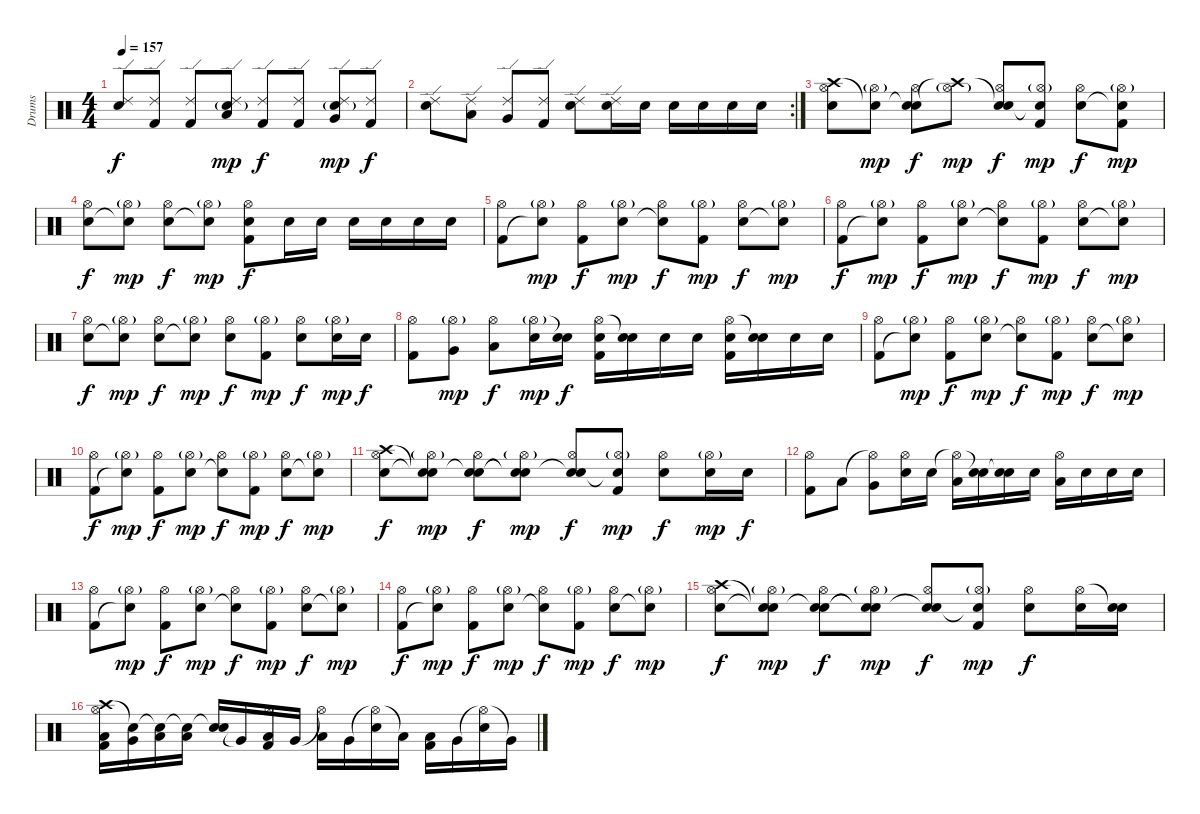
\track ("Drums" "Drums") {instrument percussion}
\staff {score}
\articulation defaults
\ts (4 4)
\tempo 157
\clef neutral
\ks c
("Ride (edge) 2" "Electric Snare (hit)").8{dy f} ("Ride (edge) 2" "Kick (hit) 2").8 ("Ride (edge) 2" "Kick (hit) 2").8 ("Ride (edge) 2" "Electric Snare (hit)"{g} "Low Tom (hit)").8{dy mp} ("Ride (edge) 2" "Kick (hit) 2").8{dy f} ("Ride (edge) 2" "Kick (hit) 2").8 ("Ride (edge) 2" "Electric Snare (hit)"{g} "Very Low Tom (hit)").8{dy mp} ("Ride (edge) 2" "Kick (hit) 2").8{dy f} |
\rc 2
("Ride (edge) 2" "Electric Snare (hit)").8 ("Ride (edge) 2" "Low Tom (hit)").8 ("Ride (edge) 2" "Very Low Tom (hit)").8 ("Ride (edge) 2" "Kick (hit) 2").8 ("Ride (edge) 2" "Electric Snare (hit)").8 ("Ride (edge) 2" "Electric Snare (hit)").16 "Electric Snare (hit)".16 "Electric Snare (hit)".16 "Electric Snare (hit)".16 "Electric Snare (hit)".16 "Electric Snare (hit)".16 |
("Crash high (hit)" "Hi-Hat (open)" "Electric Snare (hit)").8 ("Snare (hit)"{t} "Hi-Hat (open)"{g}).8{dy mp} ("Snare (hit)"{t} "Hi-Hat (open)" "Electric Snare (hit)").8{dy f} ("Crash high (hit)"{t} "Hi-Hat (open)"{g}).8{dy mp} ("Snare (hit)"{t} "Hi-Hat (open)" "Electric Snare (hit)").8{dy f} ("Snare (hit)"{t} "Hi-Hat (open)"{g} "Kick (hit) 2").8{dy mp} ("Hi-Hat (open)" "Electric Snare (hit)").8{dy f} ("Hi-Hat (open)"{g} "Snare (hit)"{t} "Kick (hit) 2").8{dy mp} |
("Hi-Hat (open)" "Electric Snare (hit)").8{dy f} ("Hi-Hat (open)"{g} "Snare (hit)"{t}).8{dy mp} ("Hi-Hat (open)" "Electric Snare (hit)").8{dy f} ("Hi-Hat (open)"{g} "Snare (hit)"{t}).8{dy mp} ("Hi-Hat (open)" "Electric Snare (hit)" "Kick (hit) 2").8{dy f} "Electric Snare (hit)".16 "Electric Snare (hit)".16 "Electric Snare (hit)".16 "Electric Snare (hit)".16 "Electric Snare (hit)".16 "Electric Snare (hit)".16 |
("Hi-Hat (open)" "Kick (hit) 2").8 ("Hi-Hat (open)"{g} "Snare (hit)"{t}).8{dy mp} ("Hi-Hat (open)" "Kick (hit) 2").8{dy f} ("Hi-Hat (open)"{g} "Electric Snare (hit)").8{dy mp} ("Hi-Hat (open)" "Snare (hit)"{t}).8{dy f} ("Hi-Hat (open)"{g} "Kick (hit) 2").8{dy mp} ("Hi-Hat (open)" "Electric Snare (hit)").8{dy f} ("Hi-Hat (open)"{g} "Snare (hit)"{t}).8{dy mp} |
("Hi-Hat (open)" "Kick (hit) 2").8{dy f} ("Hi-Hat (open)"{g} "Snare (hit)"{t}).8{dy mp} ("Hi-Hat (open)" "Kick (hit) 2").8{dy f} ("Hi-Hat (open)"{g} "Electric Snare (hit)").8{dy mp} ("Hi-Hat (open)" "Snare (hit)"{t}).8{dy f} ("Hi-Hat (open)"{g} "Kick (hit) 2").8{dy mp} ("Hi-Hat (open)" "Electric Snare (hit)").8{dy f} ("Hi-Hat (open)"{g} "Snare (hit)"{t}).8{dy mp} |
("Hi-Hat (open)" "Electric Snare (hit)").8{dy f} ("Hi-Hat (open)"{g} "Snare (hit)"{t}).8{dy mp} ("Hi-Hat (open)" "Electric Snare (hit)").8{dy f} ("Hi-Hat (open)"{g} "Snare (hit)"{t}).8{dy mp} ("Hi-Hat (open)" "Electric Snare (hit)").8{dy f} ("Hi-Hat (open)"{g} "Kick (hit) 2").8{dy mp} ("Hi-Hat (open)" "Electric Snare (hit)").8{dy f} ("Hi-Hat (open)"{g} "Electric Snare (hit)").16{dy mp} "Electric Snare (hit)".16{dy f} |
("Hi-Hat (open)" "Kick (hit) 2").8 ("Hi-Hat (open)"{g} "Very Low Tom (hit)").8{dy mp} ("Hi-Hat (open)" "Low Tom (hit)").8{dy f} ("Hi-Hat (open)"{g} "Electric Snare (hit)").16{dy mp} ("Snare (hit)"{t} "Electric Snare (hit)").16{dy f} ("Hi-Hat (open)" "Electric Snare (hit)" "Kick (hit) 2").16 ("Snare (hit)"{t} "Electric Snare (hit)").16 "Electric Snare (hit)".16 "Electric Snare (hit)".16 ("Hi-Hat (open)" "Electric Snare (hit)" "Kick (hit) 2").16 ("Snare (hit)"{t} "Electric Snare (hit)").16 "Electric Snare (hit)".16 "Electric Snare (hit)".16 |
("Hi-Hat (open)" "Kick (hit) 2").8 ("Hi-Hat (open)"{g} "Snare (hit)"{t}).8{dy mp} ("Hi-Hat (open)" "Kick (hit) 2").8{dy f} ("Hi-Hat (open)"{g} "Electric Snare (hit)").8{dy mp} ("Hi-Hat (open)" "Snare (hit)"{t}).8{dy f} ("Hi-Hat (open)"{g} "Kick (hit) 2").8{dy mp} ("Hi-Hat (open)" "Electric Snare (hit)").8{dy f} ("Hi-Hat (open)"{g} "Snare (hit)"{t}).8{dy mp} |
("Hi-Hat (open)" "Kick (hit) 2").8{dy f} ("Hi-Hat (open)"{g} "Snare (hit)"{t}).8{dy mp} ("Hi-Hat (open)" "Kick (hit) 2").8{dy f} ("Hi-Hat (open)"{g} "Electric Snare (hit)").8{dy mp} ("Hi-Hat (open)" "Snare (hit)"{t}).8{dy f} ("Hi-Hat (open)"{g} "Kick (hit) 2").8{dy mp} ("Hi-Hat (open)" "Electric Snare (hit)").8{dy f} ("Hi-Hat (open)"{g} "Snare (hit)"{t}).8{dy mp} |
("Crash high (hit)" "Hi-Hat (open)" "Electric Snare (hit)").8{dy f} ("Snare (hit)"{t} "Hi-Hat (open)"{g} "Snare (hit)"{t}).8{dy mp} ("Snare (hit)"{t} "Hi-Hat (open)" "Electric Snare (hit)").8{dy f} ("Snare (hit)"{t} "Hi-Hat (open)"{g} "Snare (hit)"{t}).8{dy mp} ("Snare (hit)"{t} "Hi-Hat (open)" "Electric Snare (hit)").8{dy f} ("Snare (hit)"{t} "Hi-Hat (open)"{g} "Kick (hit) 2").8{dy mp} ("Hi-Hat (open)" "Electric Snare (hit)").8{dy f} ("Hi-Hat (open)"{g} "Electric Snare (hit)").16{dy mp} "Electric Snare (hit)".16{dy f} |
("Hi-Hat (open)" "Kick (hit) 2").8 "Low Tom (hit)".8 ("Hi-Hat (open)"{t} "Very Low Tom (hit)").8 ("Hi-Hat (open)" "Electric Snare (hit)").16 "Electric Snare (hit)".16 ("Hi-Hat (open)"{t} "Low Tom (hit)").16 ("Snare (hit)"{t} "Electric Snare (hit)").16 ("Snare (hit)"{t} "Electric Snare (hit)").16 "Electric Snare (hit)".16 ("Hi-Hat (open)" "Low Tom (hit)").16 "Electric Snare (hit)".16 "Electric Snare (hit)".16 "Electric Snare (hit)".16 |
("Hi-Hat (open)" "Kick (hit) 2").8 ("Hi-Hat (open)"{g} "Snare (hit)"{t}).8{dy mp} ("Hi-Hat (open)" "Kick (hit) 2").8{dy f} ("Hi-Hat (open)"{g} "Electric Snare (hit)").8{dy mp} ("Hi-Hat (open)" "Snare (hit)"{t}).8{dy f} ("Hi-Hat (open)"{g} "Kick (hit) 2").8{dy mp} ("Hi-Hat (open)" "Electric Snare (hit)").8{dy f} ("Hi-Hat (open)"{g} "Snare (hit)"{t}).8{dy mp} |
("Hi-Hat (open)" "Kick (hit) 2").8{dy f} ("Hi-Hat (open)"{g} "Snare (hit)"{t}).8{dy mp} ("Hi-Hat (open)" "Kick (hit) 2").8{dy f} ("Hi-Hat (open)"{g} "Electric Snare (hit)").8{dy mp} ("Hi-Hat (open)" "Snare (hit)"{t}).8{dy f} ("Hi-Hat (open)"{g} "Kick (hit) 2").8{dy mp} ("Hi-Hat (open)" "Electric Snare (hit)").8{dy f} ("Hi-Hat (open)"{g} "Snare (hit)"{t}).8{dy mp} |
("Crash high (hit)" "Hi-Hat (open)" "Electric Snare (hit)").8{dy f} ("Snare (hit)"{t} "Hi-Hat (open)"{g} "Snare (hit)"{t}).8{dy mp} ("Snare (hit)"{t} "Hi-Hat (open)" "Electric Snare (hit)").8{dy f} ("Snare (hit)"{t} "Hi-Hat (open)"{g} "Snare (hit)"{t}).8{dy mp} ("Snare (hit)"{t} "Hi-Hat (open)" "Electric Snare (hit)").8{dy f} ("Snare (hit)"{t} "Hi-Hat (open)"{g} "Kick (hit) 2").8{dy mp} ("Hi-Hat (open)" "Electric Snare (hit)").8{dy f} ("Hi-Hat (open)" "Electric Snare (hit)").16 ("Snare (hit)"{t} "Electric Snare (hit)").16 |
("Crash high (hit)" "Hi-Hat (open)" "Low Tom (hit)" "Kick (hit) 2").16 ("Snare (hit)"{t} "Very Low Tom (hit)").16 ("Snare (hit)"{t} "Low Floor Tom (hit)").16 ("Snare (hit)"{t} "Low Tom (hit)").16 ("Snare (hit)"{t} "Electric Snare (hit)").16 "Very Low Tom (hit)"{t}.16 ("Hi-Hat (open)" "Low Floor Tom (hit)" "Kick (hit) 2").16 "Very Low Tom (hit)".16 ("Hi-Hat (open)"{t} "Low Tom (hit)").16 "Very Low Tom (hit)".16 ("Hi-Hat (open)"{t} "Electric Snare (hit)").16 "Low Tom (hit)"{t}.16 ("Low Tom (hit)" "Kick (hit) 2").16 "Very Low Tom (hit)".16 ("Hi-Hat (open)"{t} "Electric Snare (hit)").16 "Very Low Tom (hit)"{t}.16
